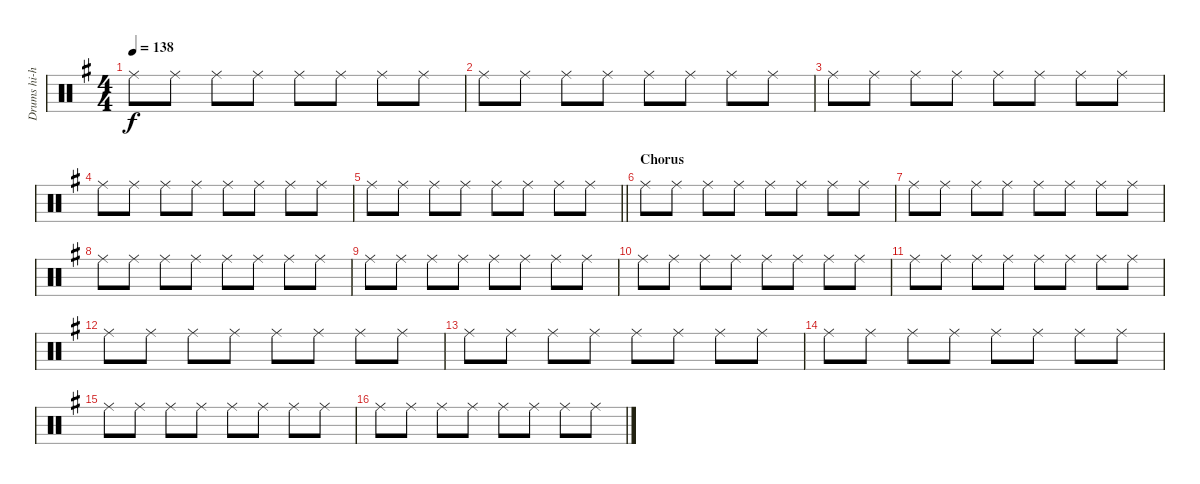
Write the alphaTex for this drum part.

\track ("Drums hi-hat" "Drums hi-h") {instrument percussion}
\staff {score}
\articulation defaults
\ts (4 4)
\tempo 138
\clef neutral
\ks g "Ride (middle)".8{dy f} "Ride (middle)".8 "Ride (middle)".8 "Ride (middle)".8 "Ride (middle)".8 "Ride (middle)".8 "Ride (middle)".8 "Ride (middle)".8
|
"Ride (middle)".8 "Ride (middle)".8 "Ride (middle)".8 "Ride (middle)".8 "Ride (middle)".8 "Ride (middle)".8 "Ride (middle)".8 "Ride (middle)".8 |
"Ride (middle)".8 "Ride (middle)".8 "Ride (middle)".8 "Ride (middle)".8 "Ride (middle)".8 "Ride (middle)".8 "Ride (middle)".8 "Ride (middle)".8 |
"Ride (middle)".8 "Ride (middle)".8 "Ride (middle)".8 "Ride (middle)".8 "Ride (middle)".8 "Ride (middle)".8 "Ride (middle)".8 "Ride (middle)".8 |
\barLineRight lightlight "Ride (middle)".8 "Ride (middle)".8 "Ride (middle)".8 "Ride (middle)".8 "Ride (middle)".8 "Ride (middle)".8 "Ride (middle)".8 "Ride (middle)".8
|
\section ("" "Chorus")
"Ride (middle)".8 "Ride (middle)".8 "Ride (middle)".8 "Ride (middle)".8 "Ride (middle)".8 "Ride (middle)".8 "Ride (middle)".8 "Ride (middle)".8 |
"Ride (middle)".8 "Ride (middle)".8 "Ride (middle)".8 "Ride (middle)".8 "Ride (middle)".8 "Ride (middle)".8 "Ride (middle)".8 "Ride (middle)".8 |
"Ride (middle)".8 "Ride (middle)".8 "Ride (middle)".8 "Ride (middle)".8 "Ride (middle)".8 "Ride (middle)".8 "Ride (middle)".8 "Ride (middle)".8 |
"Ride (middle)".8 "Ride (middle)".8 "Ride (middle)".8 "Ride (middle)".8 "Ride (middle)".8 "Ride (middle)".8 "Ride (middle)".8 "Ride (middle)".8 |
"Ride (middle)".8 "Ride (middle)".8 "Ride (middle)".8 "Ride (middle)".8 "Ride (middle)".8 "Ride (middle)".8 "Ride (middle)".8 "Ride (middle)".8 |
"Ride (middle)".8 "Ride (middle)".8 "Ride (middle)".8 "Ride (middle)".8 "Ride (middle)".8 "Ride (middle)".8 "Ride (middle)".8 "Ride (middle)".8 |
"Ride (middle)".8 "Ride (middle)".8 "Ride (middle)".8 "Ride (middle)".8 "Ride (middle)".8 "Ride (middle)".8 "Ride (middle)".8 "Ride (middle)".8 |
"Ride (middle)".8 "Ride (middle)".8 "Ride (middle)".8 "Ride (middle)".8 "Ride (middle)".8 "Ride (middle)".8 "Ride (middle)".8 "Ride (middle)".8 |
"Ride (middle)".8 "Ride (middle)".8 "Ride (middle)".8 "Ride (middle)".8 "Ride (middle)".8 "Ride (middle)".8 "Ride (middle)".8 "Ride (middle)".8 |
"Ride (middle)".8 "Ride (middle)".8 "Ride (middle)".8 "Ride (middle)".8 "Ride (middle)".8 "Ride (middle)".8 "Ride (middle)".8 "Ride (middle)".8 |
"Ride (middle)".8 "Ride (middle)".8 "Ride (middle)".8 "Ride (middle)".8 "Ride (middle)".8 "Ride (middle)".8 "Ride (middle)".8 "Ride (middle)".8
